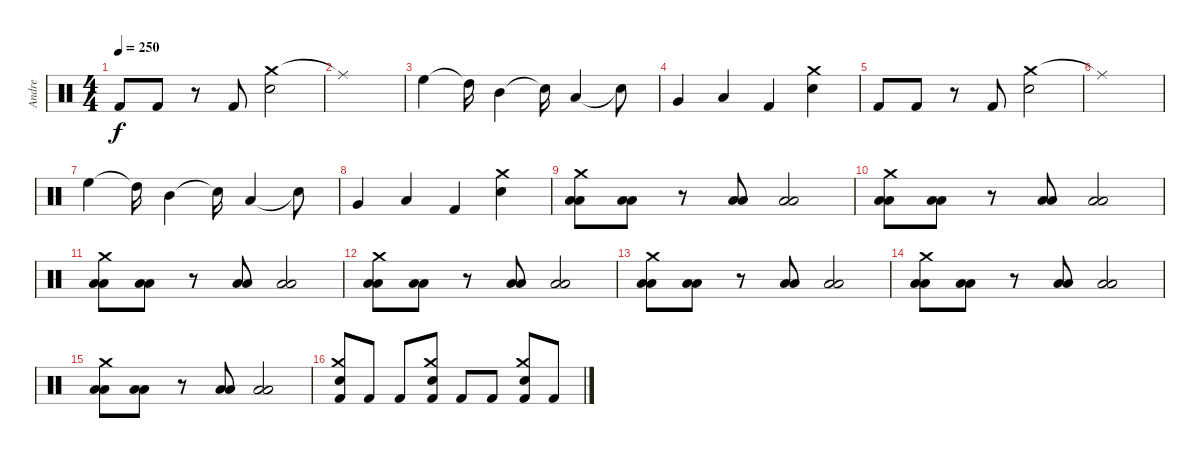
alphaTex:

\track ("Andre" "Andre") {instrument percussion}
\staff {score}
\articulation defaults
\ts (4 4)
\tempo 250
\clef neutral
\ks c "Kick (hit) 2".8{dy f} "Kick (hit) 2".8
r.8 "Kick (hit) 2".8 ("Crash medium (hit)" "Snare (hit) 2").2 |
"Ride (middle)"{t}.1 |
"High Floor Tom (hit)".4 "High Tom (hit)"{t}.16 "Mid Tom (hit)".4 "Snare (hit)"{t}.16 "Low Tom (hit)".4 "Snare (hit)"{t}.8 |
"Very Low Tom (hit)".4 "Low Floor Tom (hit)".4 "Kick (hit) 2".4 ("Crash medium (hit)" "Snare (hit) 2").4 |
"Kick (hit) 2".8 "Kick (hit) 2".8 r.8 "Kick (hit) 2".8 ("Crash medium (hit)" "Snare (hit) 2").2 |
"Ride (middle)"{t}.1 |
"High Floor Tom (hit)".4 "High Tom (hit)"{t}.16 "Mid Tom (hit)".4 "Snare (hit)"{t}.16 "Low Tom (hit)".4 "Snare (hit)"{t}.8 |
"Very Low Tom (hit)".4 "Low Floor Tom (hit)".4 "Kick (hit) 2".4 ("Crash medium (hit)" "Snare (hit) 2").4 |
("Crash medium (hit)" "Low Floor Tom (hit)" "Low Floor Tom (hit)").8 ("Low Floor Tom (hit)" "Low Floor Tom (hit)").8 r.8 ("Low Floor Tom (hit)" "Low Floor Tom (hit)").8 ("Low Tom (hit)" "Low Tom (hit)").2 |
("Crash medium (hit)" "Low Floor Tom (hit)" "Low Floor Tom (hit)").8 ("Low Floor Tom (hit)" "Low Floor Tom (hit)").8 r.8 ("Low Floor Tom (hit)" "Low Floor Tom (hit)").8 ("Low Tom (hit)" "Low Tom (hit)").2 |
("Crash medium (hit)" "Low Floor Tom (hit)" "Low Floor Tom (hit)").8 ("Low Floor Tom (hit)" "Low Floor Tom (hit)").8 r.8 ("Low Floor Tom (hit)" "Low Floor Tom (hit)").8 ("Low Tom (hit)" "Low Tom (hit)").2 |
("Crash medium (hit)" "Low Floor Tom (hit)" "Low Floor Tom (hit)").8 ("Low Floor Tom (hit)" "Low Floor Tom (hit)").8 r.8 ("Low Floor Tom (hit)" "Low Floor Tom (hit)").8 ("Low Tom (hit)" "Low Tom (hit)").2 |
("Crash medium (hit)" "Low Floor Tom (hit)" "Low Floor Tom (hit)").8 ("Low Floor Tom (hit)" "Low Floor Tom (hit)").8 r.8 ("Low Floor Tom (hit)" "Low Floor Tom (hit)").8 ("Low Tom (hit)" "Low Tom (hit)").2 |
("Crash medium (hit)" "Low Floor Tom (hit)" "Low Floor Tom (hit)").8 ("Low Floor Tom (hit)" "Low Floor Tom (hit)").8 r.8 ("Low Floor Tom (hit)" "Low Floor Tom (hit)").8 ("Low Tom (hit)" "Low Tom (hit)").2 |
("Crash medium (hit)" "Low Floor Tom (hit)" "Low Floor Tom (hit)").8 ("Low Floor Tom (hit)" "Low Floor Tom (hit)").8 r.8 ("Low Floor Tom (hit)" "Low Floor Tom (hit)").8 ("Low Tom (hit)" "Low Tom (hit)").2 |
("Crash medium (hit)" "Snare (hit) 2" "Kick (hit) 2").8 "Kick (hit) 2".8 "Kick (hit) 2".8 ("Crash medium (hit)" "Snare (hit) 2" "Kick (hit) 2").8 "Kick (hit) 2".8 "Kick (hit) 2".8 ("Crash medium (hit)" "Snare (hit) 2" "Kick (hit) 2").8 "Kick (hit) 2".8
